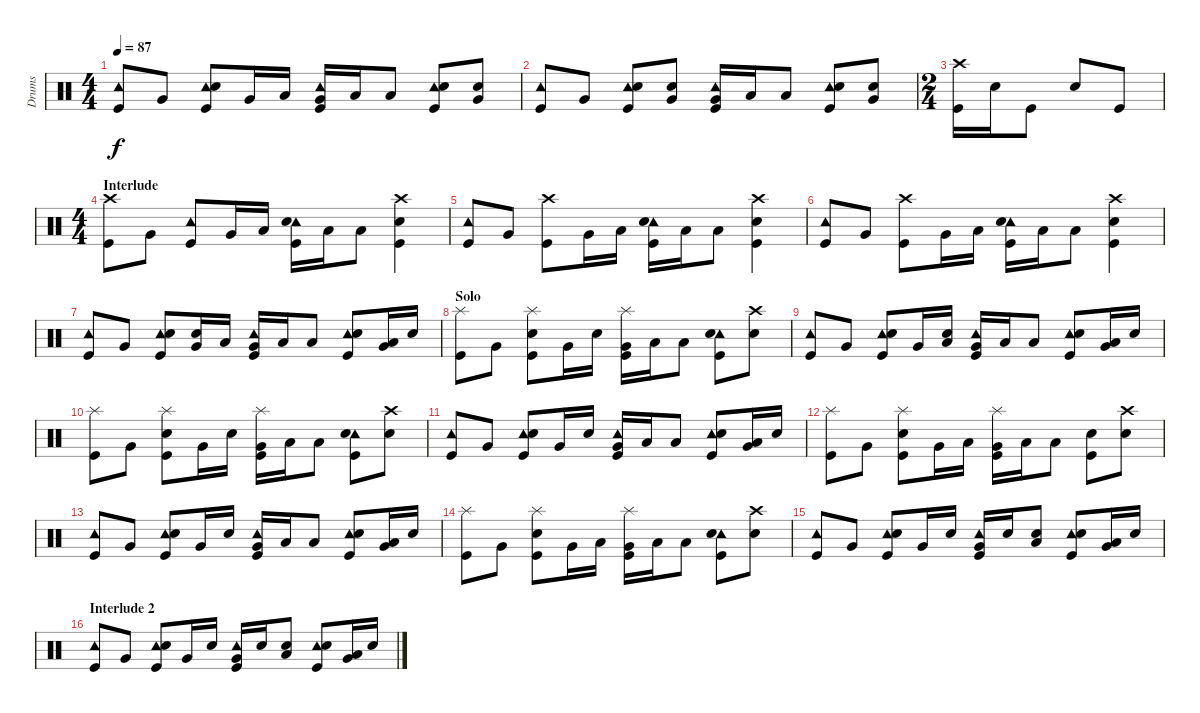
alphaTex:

\track ("Drums" "Drums") {instrument percussion}
\staff {score}
\articulation defaults
\ts (4 4)
\tempo 87
\clef neutral
\ks c
("Tambourine (hit)" "Kick (hit)").8{dy f} "Very Low Tom (hit)".8 ("Tambourine (hit)" "Snare (hit) 2" "Kick (hit)").8 "Very Low Tom (hit)".16 "Low Tom (hit)".16 ("Tambourine (hit)" "Very Low Tom (hit)" "Kick (hit)").16 "Low Tom (hit)".16 "Low Floor Tom (hit)".8 ("Tambourine (hit)" "Snare (hit) 2" "Kick (hit)").8 ("Snare (hit) 2" "Very Low Tom (hit)").8 |
("Tambourine (hit)" "Kick (hit)").8 "Very Low Tom (hit)".8 ("Tambourine (hit)" "Snare (hit) 2" "Kick (hit)").8 ("Snare (hit) 2" "Very Low Tom (hit)").8 ("Tambourine (hit)" "Very Low Tom (hit)" "Kick (hit)").16 "Low Tom (hit)".16 "Low Floor Tom (hit)".8 ("Tambourine (hit)" "Snare (hit) 2" "Kick (hit)").8 ("Snare (hit) 2" "Very Low Tom (hit)").8 |
\ts (2 4)
("Crash high (hit)" "Kick (hit)").16 "Snare (hit) 2".16 "Kick (hit)".8 "Snare (hit) 2".8 "Kick (hit)".8 |
\ts (4 4)
\section ("" "Interlude")
("Crash high (hit)" "Kick (hit)").8 "Very Low Tom (hit)".8 ("Tambourine (hit)" "Kick (hit)").8 "Very Low Tom (hit)".16 "Low Tom (hit)".16 ("Tambourine (hit)" "Snare (hit) 2" "Kick (hit)").16 "Low Tom (hit)".16 "Low Floor Tom (hit)".8 ("Crash high (hit)" "Snare (hit) 2" "Kick (hit)").4 |
("Tambourine (hit)" "Kick (hit)").8 "Very Low Tom (hit)".8 ("Crash high (hit)" "Kick (hit)").8 "Very Low Tom (hit)".16 "Low Tom (hit)".16 ("Tambourine (hit)" "Snare (hit) 2" "Kick (hit)").16 "Low Tom (hit)".16 "Low Floor Tom (hit)".8 ("Crash high (hit)" "Snare (hit) 2" "Kick (hit)").4 |
("Tambourine (hit)" "Kick (hit)").8 "Very Low Tom (hit)".8 ("Crash high (hit)" "Kick (hit)").8 "Very Low Tom (hit)".16 "Low Tom (hit)".16 ("Tambourine (hit)" "Snare (hit) 2" "Kick (hit)").16 "Low Tom (hit)".16 "Low Floor Tom (hit)".8 ("Crash high (hit)" "Snare (hit) 2" "Kick (hit)").4 |
("Tambourine (hit)" "Kick (hit)").8 "Very Low Tom (hit)".8 ("Tambourine (hit)" "Snare (hit) 2" "Kick (hit)").8 ("Snare (hit) 2" "Very Low Tom (hit)").16 "Low Tom (hit)".16 ("Tambourine (hit)" "Very Low Tom (hit)" "Kick (hit)").16 "Low Tom (hit)".16 "Low Floor Tom (hit)".8 ("Tambourine (hit)" "Snare (hit) 2" "Kick (hit)").8 ("Low Tom (hit)" "Very Low Tom (hit)").16 "Snare (hit) 2".16 |
\section ("" "Solo")
("Splash (hit)" "Kick (hit)").8 "Very Low Tom (hit)".8 ("Splash (hit)" "Snare (hit) 2" "Kick (hit)").8 "Very Low Tom (hit)".16 "Snare (hit) 2".16 ("Splash (hit)" "Very Low Tom (hit)" "Kick (hit)").16 "Low Tom (hit)".16 "Low Floor Tom (hit)".8 ("Tambourine (hit)" "Snare (hit) 2" "Kick (hit)").8 ("Crash high (hit)" "Snare (hit) 2").8 |
("Tambourine (hit)" "Kick (hit)").8 "Very Low Tom (hit)".8 ("Tambourine (hit)" "Snare (hit) 2" "Kick (hit)").8 "Very Low Tom (hit)".16 ("Snare (hit) 2" "Low Tom (hit)").16 ("Tambourine (hit)" "Very Low Tom (hit)" "Kick (hit)").16 "Low Tom (hit)".16 "Low Floor Tom (hit)".8 ("Tambourine (hit)" "Snare (hit) 2" "Kick (hit)").8 ("Low Tom (hit)" "Very Low Tom (hit)").16 "Snare (hit) 2".16 |
("Splash (hit)" "Kick (hit)").8 "Very Low Tom (hit)".8 ("Splash (hit)" "Snare (hit) 2" "Kick (hit)").8 "Very Low Tom (hit)".16 "Snare (hit) 2".16 ("Splash (hit)" "Very Low Tom (hit)" "Kick (hit)").16 "Low Tom (hit)".16 "Low Floor Tom (hit)".8 ("Tambourine (hit)" "Snare (hit) 2" "Kick (hit)").8 ("Crash high (hit)" "Snare (hit) 2").8 |
("Tambourine (hit)" "Kick (hit)").8 "Very Low Tom (hit)".8 ("Tambourine (hit)" "Snare (hit) 2" "Kick (hit)").8 "Very Low Tom (hit)".16 "Snare (hit) 2".16 ("Tambourine (hit)" "Very Low Tom (hit)" "Kick (hit)").16 "Low Tom (hit)".16 "Low Floor Tom (hit)".8 ("Tambourine (hit)" "Snare (hit) 2" "Kick (hit)").8 ("Low Tom (hit)" "Very Low Tom (hit)").16 "Snare (hit) 2".16 |
("Splash (hit)" "Kick (hit)").8 "Very Low Tom (hit)".8 ("Splash (hit)" "Snare (hit) 2" "Kick (hit)").8 "Very Low Tom (hit)".16 "Low Tom (hit)".16 ("Splash (hit)" "Very Low Tom (hit)" "Kick (hit)").16 "Low Tom (hit)".16 "Low Floor Tom (hit)".8 ("Snare (hit) 2" "Kick (hit)").8 ("Crash high (hit)" "Snare (hit) 2").8 |
("Tambourine (hit)" "Kick (hit)").8 "Very Low Tom (hit)".8 ("Tambourine (hit)" "Snare (hit) 2" "Kick (hit)").8 "Very Low Tom (hit)".16 "Snare (hit) 2".16 ("Tambourine (hit)" "Very Low Tom (hit)" "Kick (hit)").16 "Low Tom (hit)".16 "Low Floor Tom (hit)".8 ("Tambourine (hit)" "Snare (hit) 2" "Kick (hit)").8 ("Low Tom (hit)" "Very Low Tom (hit)").16 "Snare (hit) 2".16 |
("Splash (hit)" "Kick (hit)").8 "Very Low Tom (hit)".8 ("Splash (hit)" "Snare (hit) 2" "Kick (hit)").8 "Very Low Tom (hit)".16 "Low Tom (hit)".16 ("Splash (hit)" "Very Low Tom (hit)" "Kick (hit)").16 "Low Tom (hit)".16 "Low Floor Tom (hit)".8 ("Tambourine (hit)" "Snare (hit) 2" "Kick (hit)").8 ("Crash high (hit)" "Snare (hit) 2").8 |
("Tambourine (hit)" "Kick (hit)").8 "Very Low Tom (hit)".8 ("Tambourine (hit)" "Snare (hit) 2" "Kick (hit)").8 "Very Low Tom (hit)".16 "Snare (hit) 2".16 ("Tambourine (hit)" "Very Low Tom (hit)" "Kick (hit)").16 "Snare (hit) 2".16 ("Snare (hit) 2" "Low Floor Tom (hit)").8 ("Tambourine (hit)" "Snare (hit) 2" "Kick (hit)").8 ("Low Tom (hit)" "Very Low Tom (hit)").16 "Snare (hit) 2".16 |
\section ("" "Interlude 2")
("Tambourine (hit)" "Kick (hit)").8 "Very Low Tom (hit)".8 ("Tambourine (hit)" "Snare (hit) 2" "Kick (hit)").8 "Very Low Tom (hit)".16 "Snare (hit) 2".16 ("Tambourine (hit)" "Very Low Tom (hit)" "Kick (hit)").16 "Snare (hit) 2".16 ("Snare (hit) 2" "Low Floor Tom (hit)").8 ("Tambourine (hit)" "Snare (hit) 2" "Kick (hit)").8 ("Low Tom (hit)" "Very Low Tom (hit)").16 "Snare (hit) 2".16
